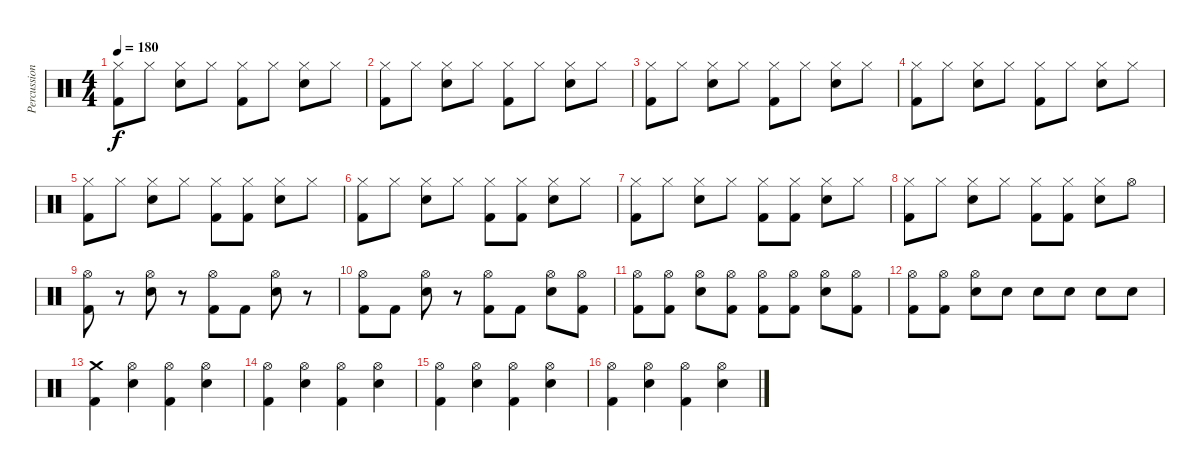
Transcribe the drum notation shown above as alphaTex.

\track ("Percussioni" "Percussion") {instrument percussion}
\staff {score}
\articulation defaults
\ts (4 4)
\tempo 180
\clef neutral
\ks c
("Hi-Hat (closed)" "Kick (hit) 2").8{dy f} "Hi-Hat (closed)".8 ("Hi-Hat (closed)" "Electric Snare (hit)").8 "Hi-Hat (closed)".8 ("Hi-Hat (closed)" "Kick (hit) 2").8 "Hi-Hat (closed)".8 ("Hi-Hat (closed)" "Electric Snare (hit)").8 "Hi-Hat (closed)".8 |
("Hi-Hat (closed)" "Kick (hit) 2").8 "Hi-Hat (closed)".8 ("Hi-Hat (closed)" "Electric Snare (hit)").8 "Hi-Hat (closed)".8 ("Hi-Hat (closed)" "Kick (hit) 2").8 "Hi-Hat (closed)".8 ("Hi-Hat (closed)" "Electric Snare (hit)").8 "Hi-Hat (closed)".8 |
("Hi-Hat (closed)" "Kick (hit) 2").8 "Hi-Hat (closed)".8 ("Hi-Hat (closed)" "Electric Snare (hit)").8 "Hi-Hat (closed)".8 ("Hi-Hat (closed)" "Kick (hit) 2").8 "Hi-Hat (closed)".8 ("Hi-Hat (closed)" "Electric Snare (hit)").8 "Hi-Hat (closed)".8 |
("Hi-Hat (closed)" "Kick (hit) 2").8 "Hi-Hat (closed)".8 ("Hi-Hat (closed)" "Electric Snare (hit)").8 "Hi-Hat (closed)".8 ("Hi-Hat (closed)" "Kick (hit) 2").8 "Hi-Hat (closed)".8 ("Hi-Hat (closed)" "Electric Snare (hit)").8 "Hi-Hat (closed)".8 |
("Hi-Hat (closed)" "Kick (hit) 2").8 "Hi-Hat (closed)".8 ("Hi-Hat (closed)" "Electric Snare (hit)").8 "Hi-Hat (closed)".8 ("Hi-Hat (closed)" "Kick (hit) 2").8 ("Hi-Hat (closed)" "Kick (hit) 2").8 ("Hi-Hat (closed)" "Electric Snare (hit)").8 "Hi-Hat (closed)".8 |
("Hi-Hat (closed)" "Kick (hit) 2").8 "Hi-Hat (closed)".8 ("Hi-Hat (closed)" "Electric Snare (hit)").8 "Hi-Hat (closed)".8 ("Hi-Hat (closed)" "Kick (hit) 2").8 ("Hi-Hat (closed)" "Kick (hit) 2").8 ("Hi-Hat (closed)" "Electric Snare (hit)").8 "Hi-Hat (closed)".8 |
("Hi-Hat (closed)" "Kick (hit) 2").8 "Hi-Hat (closed)".8 ("Hi-Hat (closed)" "Electric Snare (hit)").8 "Hi-Hat (closed)".8 ("Hi-Hat (closed)" "Kick (hit) 2").8 ("Hi-Hat (closed)" "Kick (hit) 2").8 ("Hi-Hat (closed)" "Electric Snare (hit)").8 "Hi-Hat (closed)".8 |
("Hi-Hat (closed)" "Kick (hit) 2").8 "Hi-Hat (closed)".8 ("Hi-Hat (closed)" "Electric Snare (hit)").8 "Hi-Hat (closed)".8 ("Hi-Hat (closed)" "Kick (hit) 2").8 ("Hi-Hat (closed)" "Kick (hit) 2").8 ("Hi-Hat (closed)" "Electric Snare (hit)").8 "Hi-Hat (open)".8 |
("Hi-Hat (open)" "Kick (hit) 2").8 r.8 ("Hi-Hat (open)" "Electric Snare (hit)").8 r.8 ("Hi-Hat (open)" "Kick (hit) 2").8 "Kick (hit) 2".8 ("Hi-Hat (open)" "Electric Snare (hit)").8 r.8 |
("Hi-Hat (open)" "Kick (hit) 2").8 "Kick (hit) 2".8 ("Hi-Hat (open)" "Electric Snare (hit)").8 r.8 ("Hi-Hat (open)" "Kick (hit) 2").8 "Kick (hit) 2".8 ("Hi-Hat (open)" "Electric Snare (hit)").8 ("Hi-Hat (open)" "Kick (hit) 2").8 |
("Hi-Hat (open)" "Kick (hit) 2").8 ("Hi-Hat (open)" "Kick (hit) 2").8 ("Hi-Hat (open)" "Electric Snare (hit)").8 ("Hi-Hat (open)" "Kick (hit) 2").8 ("Hi-Hat (open)" "Kick (hit) 2").8 ("Hi-Hat (open)" "Kick (hit) 2").8 ("Hi-Hat (open)" "Electric Snare (hit)").8 ("Hi-Hat (open)" "Kick (hit) 2").8 |
("Hi-Hat (open)" "Kick (hit) 2").8 ("Hi-Hat (open)" "Kick (hit) 2").8 ("Hi-Hat (open)" "Electric Snare (hit)").8 "Electric Snare (hit)".8 "Electric Snare (hit)".8 "Electric Snare (hit)".8 "Electric Snare (hit)".8 "Electric Snare (hit)".8 |
("Crash medium (hit)" "Kick (hit) 2").4 ("Hi-Hat (open)" "Electric Snare (hit)").4 ("Hi-Hat (open)" "Kick (hit) 2").4 ("Hi-Hat (open)" "Electric Snare (hit)").4 |
("Hi-Hat (open)" "Kick (hit) 2").4 ("Hi-Hat (open)" "Electric Snare (hit)").4 ("Hi-Hat (open)" "Kick (hit) 2").4 ("Hi-Hat (open)" "Electric Snare (hit)").4 |
("Hi-Hat (open)" "Kick (hit) 2").4 ("Hi-Hat (open)" "Electric Snare (hit)").4 ("Hi-Hat (open)" "Kick (hit) 2").4 ("Hi-Hat (open)" "Electric Snare (hit)").4 |
("Hi-Hat (open)" "Kick (hit) 2").4 ("Hi-Hat (open)" "Electric Snare (hit)").4 ("Hi-Hat (open)" "Kick (hit) 2").4 ("Hi-Hat (open)" "Electric Snare (hit)").4
